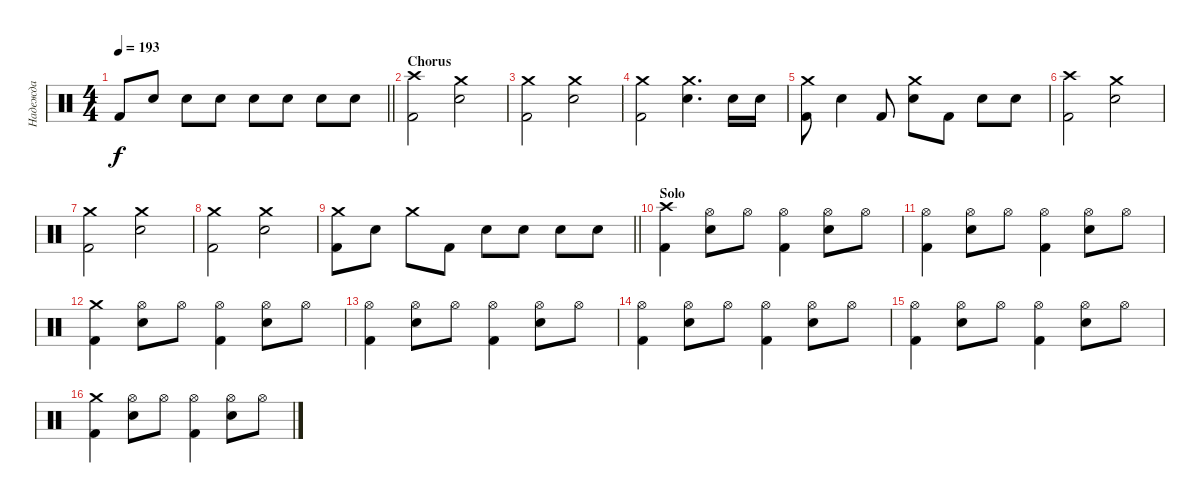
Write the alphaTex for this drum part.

\track ("Надежда" "Надежда") {instrument percussion}
\staff {score}
\articulation defaults
\ts (4 4)
\tempo 193
\clef neutral
\barLineRight lightlight
\ks c "Kick (hit) 2".8{dy f} "Snare (hit) 2".8 "Snare (hit) 2".8 "Snare (hit) 2".8 "Snare (hit) 2".8 "Snare (hit) 2".8 "Snare (hit) 2".8 "Snare (hit) 2".8
|
\section ("" "Chorus")
("Crash high (hit)" "Kick (hit) 2").2 ("Crash medium (hit)" "Snare (hit) 2").2 |
("Crash medium (hit)" "Kick (hit) 2").2 ("Crash medium (hit)" "Snare (hit) 2").2 |
("Crash medium (hit)" "Kick (hit) 2").2 ("Crash medium (hit)" "Snare (hit) 2").4{d} "Snare (hit) 2".16 "Snare (hit) 2".16 |
("Crash medium (hit)" "Kick (hit) 2").8 "Snare (hit) 2".4 "Kick (hit) 2".8 ("Crash medium (hit)" "Snare (hit) 2").8 "Kick (hit) 2".8 "Snare (hit) 2".8 "Snare (hit) 2".8 |
("Crash high (hit)" "Kick (hit) 2").2 ("Crash medium (hit)" "Snare (hit) 2").2 |
("Crash medium (hit)" "Kick (hit) 2").2 ("Crash medium (hit)" "Snare (hit) 2").2 |
("Crash medium (hit)" "Kick (hit) 2").2 ("Crash medium (hit)" "Snare (hit) 2").2 |
\barLineRight lightlight
("Crash medium (hit)" "Kick (hit) 2").8 "Snare (hit) 2".8 "Crash medium (hit)".8 "Kick (hit) 2".8 "Snare (hit) 2".8 "Snare (hit) 2".8 "Snare (hit) 2".8 "Snare (hit) 2".8 |
\section ("" "Solo")
("Crash high (hit)" "Kick (hit) 2").4 ("Hi-Hat (open)" "Snare (hit) 2").8 "Hi-Hat (open)".8 ("Hi-Hat (open)" "Kick (hit) 2").4 ("Hi-Hat (open)" "Snare (hit) 2").8 "Hi-Hat (open)".8 |
("Hi-Hat (open)" "Kick (hit) 2").4 ("Hi-Hat (open)" "Snare (hit) 2").8 "Hi-Hat (open)".8 ("Hi-Hat (open)" "Kick (hit) 2").4 ("Hi-Hat (open)" "Snare (hit) 2").8 "Hi-Hat (open)".8 |
("Crash medium (hit)" "Kick (hit) 2").4 ("Hi-Hat (open)" "Snare (hit) 2").8 "Hi-Hat (open)".8 ("Hi-Hat (open)" "Kick (hit) 2").4 ("Hi-Hat (open)" "Snare (hit) 2").8 "Hi-Hat (open)".8 |
("Hi-Hat (open)" "Kick (hit) 2").4 ("Hi-Hat (open)" "Snare (hit) 2").8 "Hi-Hat (open)".8 ("Hi-Hat (open)" "Kick (hit) 2").4 ("Hi-Hat (open)" "Snare (hit) 2").8 "Hi-Hat (open)".8 |
("Hi-Hat (open)" "Kick (hit) 2").4 ("Hi-Hat (open)" "Snare (hit) 2").8 "Hi-Hat (open)".8 ("Hi-Hat (open)" "Kick (hit) 2").4 ("Hi-Hat (open)" "Snare (hit) 2").8 "Hi-Hat (open)".8 |
("Hi-Hat (open)" "Kick (hit) 2").4 ("Hi-Hat (open)" "Snare (hit) 2").8 "Hi-Hat (open)".8 ("Hi-Hat (open)" "Kick (hit) 2").4 ("Hi-Hat (open)" "Snare (hit) 2").8 "Hi-Hat (open)".8 |
("Crash medium (hit)" "Kick (hit) 2").4 ("Hi-Hat (open)" "Snare (hit) 2").8 "Hi-Hat (open)".8 ("Hi-Hat (open)" "Kick (hit) 2").4 ("Hi-Hat (open)" "Snare (hit) 2").8 "Hi-Hat (open)".8
